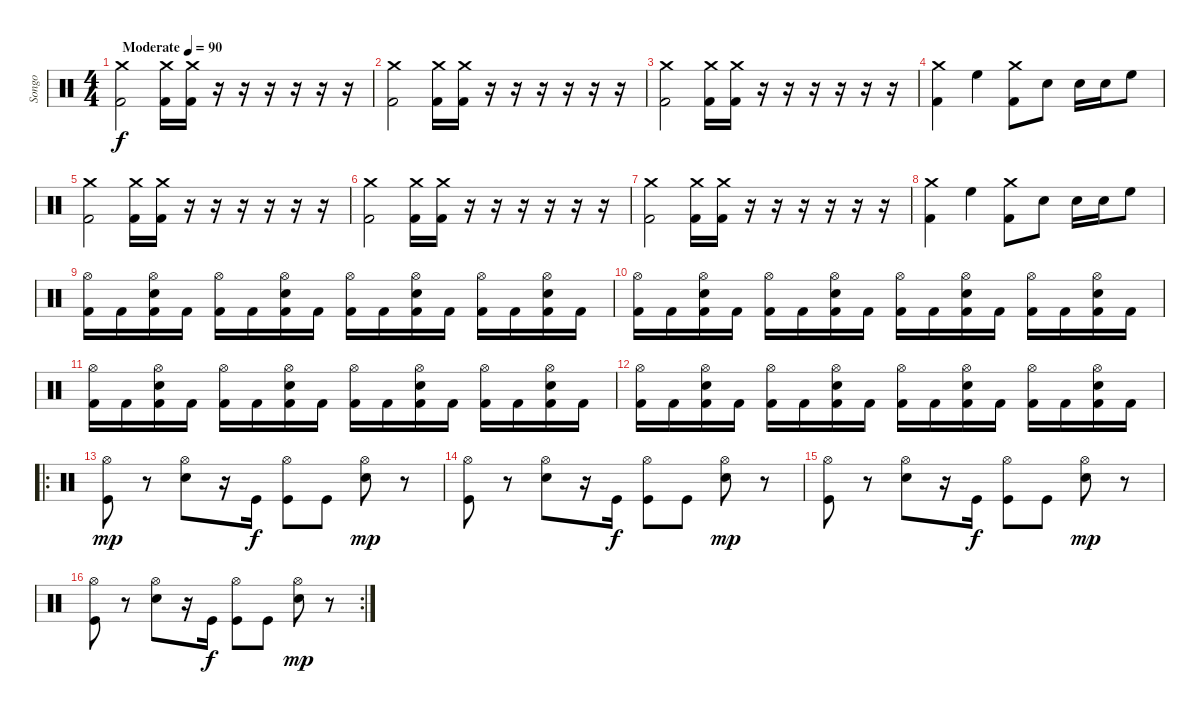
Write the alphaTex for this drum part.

\track ("Songo" "Songo") {instrument percussion}
\staff {score}
\articulation defaults
\ts (4 4)
\tempo (90 "Moderate")
\clef neutral
\ks c
("Crash medium (hit)" "Kick (hit) 2").2{dy f} ("Crash medium (hit)" "Kick (hit) 2").16 ("Crash medium (hit)" "Kick (hit) 2").16 r.16 r.16 r.16 r.16 r.16 r.16 |
("Crash medium (hit)" "Kick (hit) 2").2 ("Crash medium (hit)" "Kick (hit) 2").16 ("Crash medium (hit)" "Kick (hit) 2").16 r.16 r.16 r.16 r.16 r.16 r.16 |
("Crash medium (hit)" "Kick (hit) 2").2 ("Crash medium (hit)" "Kick (hit) 2").16 ("Crash medium (hit)" "Kick (hit) 2").16 r.16 r.16 r.16 r.16 r.16 r.16 |
("Crash medium (hit)" "Kick (hit) 2").4 "High Floor Tom (hit)".4 ("Crash medium (hit)" "Kick (hit) 2").8 "Snare (hit) 2".8 "Snare (hit) 2".16 "Snare (hit) 2".16 "High Floor Tom (hit)".8 |
("Crash medium (hit)" "Kick (hit) 2").2 ("Crash medium (hit)" "Kick (hit) 2").16 ("Crash medium (hit)" "Kick (hit) 2").16 r.16 r.16 r.16 r.16 r.16 r.16 |
("Crash medium (hit)" "Kick (hit) 2").2 ("Crash medium (hit)" "Kick (hit) 2").16 ("Crash medium (hit)" "Kick (hit) 2").16 r.16 r.16 r.16 r.16 r.16 r.16 |
("Crash medium (hit)" "Kick (hit) 2").2 ("Crash medium (hit)" "Kick (hit) 2").16 ("Crash medium (hit)" "Kick (hit) 2").16 r.16 r.16 r.16 r.16 r.16 r.16 |
("Crash medium (hit)" "Kick (hit) 2").4 "High Floor Tom (hit)".4 ("Crash medium (hit)" "Kick (hit) 2").8 "Snare (hit) 2".8 "Snare (hit) 2".16 "Snare (hit) 2".16 "High Floor Tom (hit)".8 |
("Hi-Hat (open)" "Kick (hit) 2").16 "Kick (hit) 2".16 ("Kick (hit) 2" "Snare (hit) 2" "Hi-Hat (open)").16 "Kick (hit) 2".16 ("Kick (hit) 2" "Hi-Hat (open)").16 "Kick (hit) 2".16 ("Kick (hit) 2" "Snare (hit) 2" "Hi-Hat (open)").16 "Kick (hit) 2".16 ("Kick (hit) 2" "Hi-Hat (open)").16 "Kick (hit) 2".16 ("Kick (hit) 2" "Snare (hit) 2" "Hi-Hat (open)").16 "Kick (hit) 2".16 ("Kick (hit) 2" "Hi-Hat (open)").16 "Kick (hit) 2".16 ("Kick (hit) 2" "Snare (hit) 2" "Hi-Hat (open)").16 "Kick (hit) 2".16 |
("Hi-Hat (open)" "Kick (hit) 2").16 "Kick (hit) 2".16 ("Kick (hit) 2" "Snare (hit) 2" "Hi-Hat (open)").16 "Kick (hit) 2".16 ("Kick (hit) 2" "Hi-Hat (open)").16 "Kick (hit) 2".16 ("Kick (hit) 2" "Snare (hit) 2" "Hi-Hat (open)").16 "Kick (hit) 2".16 ("Kick (hit) 2" "Hi-Hat (open)").16 "Kick (hit) 2".16 ("Kick (hit) 2" "Snare (hit) 2" "Hi-Hat (open)").16 "Kick (hit) 2".16 ("Kick (hit) 2" "Hi-Hat (open)").16 "Kick (hit) 2".16 ("Kick (hit) 2" "Snare (hit) 2" "Hi-Hat (open)").16 "Kick (hit) 2".16 |
("Hi-Hat (open)" "Kick (hit) 2").16 "Kick (hit) 2".16 ("Kick (hit) 2" "Snare (hit) 2" "Hi-Hat (open)").16 "Kick (hit) 2".16 ("Kick (hit) 2" "Hi-Hat (open)").16 "Kick (hit) 2".16 ("Kick (hit) 2" "Snare (hit) 2" "Hi-Hat (open)").16 "Kick (hit) 2".16 ("Kick (hit) 2" "Hi-Hat (open)").16 "Kick (hit) 2".16 ("Kick (hit) 2" "Snare (hit) 2" "Hi-Hat (open)").16 "Kick (hit) 2".16 ("Kick (hit) 2" "Hi-Hat (open)").16 "Kick (hit) 2".16 ("Kick (hit) 2" "Snare (hit) 2" "Hi-Hat (open)").16 "Kick (hit) 2".16 |
("Hi-Hat (open)" "Kick (hit) 2").16 "Kick (hit) 2".16 ("Kick (hit) 2" "Snare (hit) 2" "Hi-Hat (open)").16 "Kick (hit) 2".16 ("Kick (hit) 2" "Hi-Hat (open)").16 "Kick (hit) 2".16 ("Kick (hit) 2" "Snare (hit) 2" "Hi-Hat (open)").16 "Kick (hit) 2".16 ("Kick (hit) 2" "Hi-Hat (open)").16 "Kick (hit) 2".16 ("Kick (hit) 2" "Snare (hit) 2" "Hi-Hat (open)").16 "Kick (hit) 2".16 ("Kick (hit) 2" "Hi-Hat (open)").16 "Kick (hit) 2".16 ("Kick (hit) 2" "Snare (hit) 2" "Hi-Hat (open)").16 "Kick (hit) 2".16 |
\ro
("Hi-Hat (open)" "Kick (hit)").8{dy mp} r.8 ("Hi-Hat (open)" "Snare (hit) 2").8 r.16 "Kick (hit)".16{dy f} ("Hi-Hat (open)" "Kick (hit)").8 "Kick (hit)".8 ("Hi-Hat (open)" "Snare (hit) 2").8{dy mp} r.8 |
("Hi-Hat (open)" "Kick (hit)").8 r.8 ("Hi-Hat (open)" "Snare (hit) 2").8 r.16 "Kick (hit)".16{dy f} ("Hi-Hat (open)" "Kick (hit)").8 "Kick (hit)".8 ("Hi-Hat (open)" "Snare (hit) 2").8{dy mp} r.8 |
("Hi-Hat (open)" "Kick (hit)").8 r.8 ("Hi-Hat (open)" "Snare (hit) 2").8 r.16 "Kick (hit)".16{dy f} ("Hi-Hat (open)" "Kick (hit)").8 "Kick (hit)".8 ("Hi-Hat (open)" "Snare (hit) 2").8{dy mp} r.8 |
\rc 2
("Hi-Hat (open)" "Kick (hit)").8 r.8 ("Hi-Hat (open)" "Snare (hit) 2").8 r.16 "Kick (hit)".16{dy f} ("Hi-Hat (open)" "Kick (hit)").8 "Kick (hit)".8 ("Hi-Hat (open)" "Snare (hit) 2").8{dy mp} r.8
